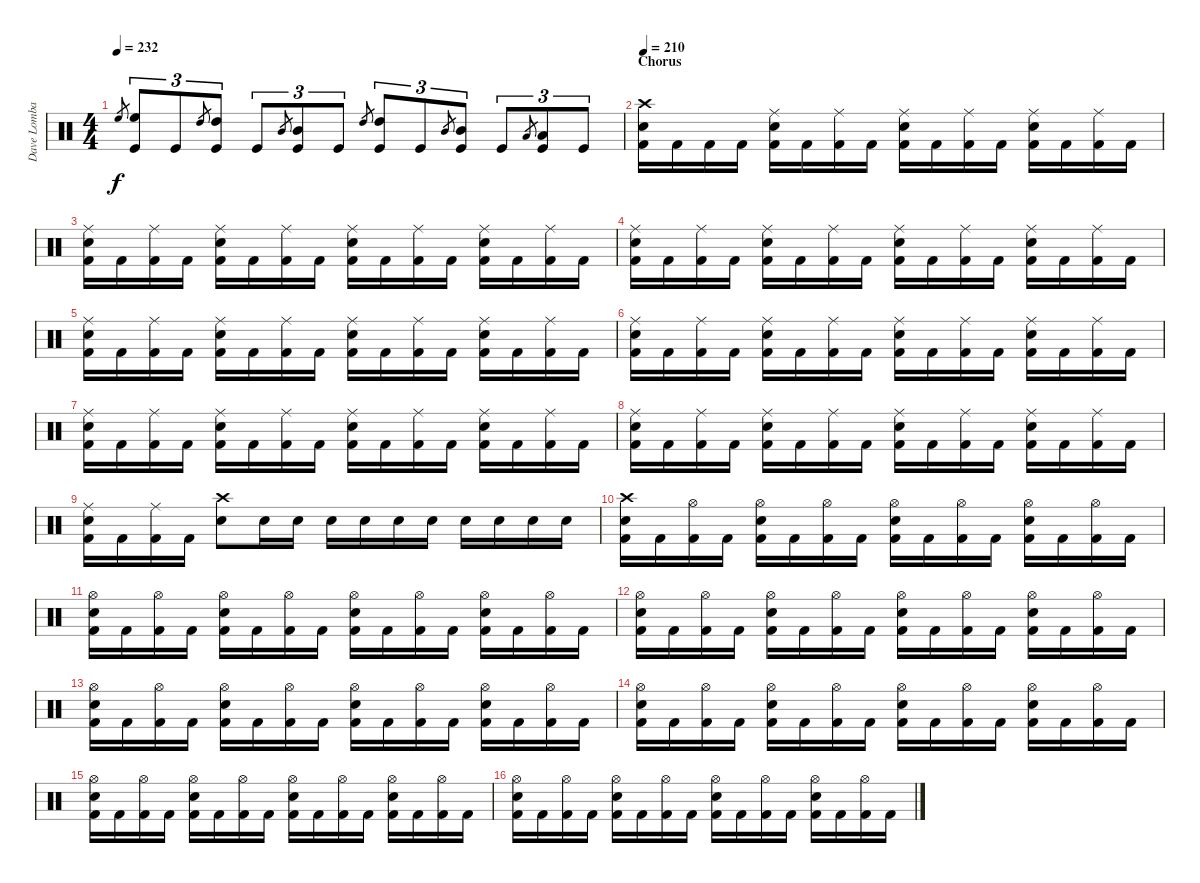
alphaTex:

\track ("Dave Lombardo" "Dave Lomba") {instrument percussion}
\staff {score}
\articulation defaults
\ts (4 4)
\tempo 232
\clef neutral
\ks c "High Floor Tom (hit)".8{gr dy f}
("High Floor Tom (hit)" "Kick (hit)").8{tu (3 2)} "Kick (hit)".8{tu (3 2)} "High Tom (hit)".8{gr} ("High Tom (hit)" "Kick (hit)").8{tu (3 2)} "Kick (hit)".8{tu (3 2)} "Mid Tom (hit)".8{gr} ("Mid Tom (hit)" "Kick (hit)").8{tu (3 2)} "Kick (hit)".8{tu (3 2)} "High Tom (hit)".8{gr} ("High Tom (hit)" "Kick (hit)").8{tu (3 2)} "Kick (hit)".8{tu (3 2)} "Mid Tom (hit)".8{gr} ("Mid Tom (hit)" "Kick (hit)").8{tu (3 2)} "Kick (hit)".8{tu (3 2)} "Low Tom (hit)".8{gr} ("Low Tom (hit)" "Kick (hit)").8{tu (3 2)} "Kick (hit)".8{tu (3 2)} |
\section ("" "Chorus")
\tempo 210
("Crash high (hit)" "Snare (hit) 2" "Kick (hit) 2").16 "Kick (hit) 2".16 "Kick (hit) 2".16 "Kick (hit) 2".16 ("Ride (middle)" "Snare (hit) 2" "Kick (hit) 2").16 "Kick (hit) 2".16 ("Ride (middle)" "Kick (hit) 2").16 "Kick (hit) 2".16 ("Ride (middle)" "Snare (hit) 2" "Kick (hit) 2").16 "Kick (hit) 2".16 ("Ride (middle)" "Kick (hit) 2").16 "Kick (hit) 2".16 ("Ride (middle)" "Snare (hit) 2" "Kick (hit) 2").16 "Kick (hit) 2".16 ("Ride (middle)" "Kick (hit) 2").16 "Kick (hit) 2".16 |
("Ride (middle)" "Snare (hit) 2" "Kick (hit) 2").16 "Kick (hit) 2".16 ("Ride (middle)" "Kick (hit) 2").16 "Kick (hit) 2".16 ("Ride (middle)" "Snare (hit) 2" "Kick (hit) 2").16 "Kick (hit) 2".16 ("Ride (middle)" "Kick (hit) 2").16 "Kick (hit) 2".16 ("Ride (middle)" "Snare (hit) 2" "Kick (hit) 2").16 "Kick (hit) 2".16 ("Ride (middle)" "Kick (hit) 2").16 "Kick (hit) 2".16 ("Ride (middle)" "Snare (hit) 2" "Kick (hit) 2").16 "Kick (hit) 2".16 ("Ride (middle)" "Kick (hit) 2").16 "Kick (hit) 2".16 |
("Ride (middle)" "Snare (hit) 2" "Kick (hit) 2").16 "Kick (hit) 2".16 ("Ride (middle)" "Kick (hit) 2").16 "Kick (hit) 2".16 ("Ride (middle)" "Snare (hit) 2" "Kick (hit) 2").16 "Kick (hit) 2".16 ("Ride (middle)" "Kick (hit) 2").16 "Kick (hit) 2".16 ("Ride (middle)" "Snare (hit) 2" "Kick (hit) 2").16 "Kick (hit) 2".16 ("Ride (middle)" "Kick (hit) 2").16 "Kick (hit) 2".16 ("Ride (middle)" "Snare (hit) 2" "Kick (hit) 2").16 "Kick (hit) 2".16 ("Ride (middle)" "Kick (hit) 2").16 "Kick (hit) 2".16 |
("Ride (middle)" "Snare (hit) 2" "Kick (hit) 2").16 "Kick (hit) 2".16 ("Ride (middle)" "Kick (hit) 2").16 "Kick (hit) 2".16 ("Ride (middle)" "Snare (hit) 2" "Kick (hit) 2").16 "Kick (hit) 2".16 ("Ride (middle)" "Kick (hit) 2").16 "Kick (hit) 2".16 ("Ride (middle)" "Snare (hit) 2" "Kick (hit) 2").16 "Kick (hit) 2".16 ("Ride (middle)" "Kick (hit) 2").16 "Kick (hit) 2".16 ("Ride (middle)" "Snare (hit) 2" "Kick (hit) 2").16 "Kick (hit) 2".16 ("Ride (middle)" "Kick (hit) 2").16 "Kick (hit) 2".16 |
("Ride (middle)" "Snare (hit) 2" "Kick (hit) 2").16 "Kick (hit) 2".16 ("Ride (middle)" "Kick (hit) 2").16 "Kick (hit) 2".16 ("Ride (middle)" "Snare (hit) 2" "Kick (hit) 2").16 "Kick (hit) 2".16 ("Ride (middle)" "Kick (hit) 2").16 "Kick (hit) 2".16 ("Ride (middle)" "Snare (hit) 2" "Kick (hit) 2").16 "Kick (hit) 2".16 ("Ride (middle)" "Kick (hit) 2").16 "Kick (hit) 2".16 ("Ride (middle)" "Snare (hit) 2" "Kick (hit) 2").16 "Kick (hit) 2".16 ("Ride (middle)" "Kick (hit) 2").16 "Kick (hit) 2".16 |
("Ride (middle)" "Snare (hit) 2" "Kick (hit) 2").16 "Kick (hit) 2".16 ("Ride (middle)" "Kick (hit) 2").16 "Kick (hit) 2".16 ("Ride (middle)" "Snare (hit) 2" "Kick (hit) 2").16 "Kick (hit) 2".16 ("Ride (middle)" "Kick (hit) 2").16 "Kick (hit) 2".16 ("Ride (middle)" "Snare (hit) 2" "Kick (hit) 2").16 "Kick (hit) 2".16 ("Ride (middle)" "Kick (hit) 2").16 "Kick (hit) 2".16 ("Ride (middle)" "Snare (hit) 2" "Kick (hit) 2").16 "Kick (hit) 2".16 ("Ride (middle)" "Kick (hit) 2").16 "Kick (hit) 2".16 |
("Ride (middle)" "Snare (hit) 2" "Kick (hit) 2").16 "Kick (hit) 2".16 ("Ride (middle)" "Kick (hit) 2").16 "Kick (hit) 2".16 ("Ride (middle)" "Snare (hit) 2" "Kick (hit) 2").16 "Kick (hit) 2".16 ("Ride (middle)" "Kick (hit) 2").16 "Kick (hit) 2".16 ("Ride (middle)" "Snare (hit) 2" "Kick (hit) 2").16 "Kick (hit) 2".16 ("Ride (middle)" "Kick (hit) 2").16 "Kick (hit) 2".16 ("Ride (middle)" "Snare (hit) 2" "Kick (hit) 2").16 "Kick (hit) 2".16 ("Ride (middle)" "Kick (hit) 2").16 "Kick (hit) 2".16 |
("Ride (middle)" "Snare (hit) 2" "Kick (hit) 2").16 "Kick (hit) 2".16 ("Ride (middle)" "Kick (hit) 2").16 "Kick (hit) 2".16 ("Crash high (hit)" "Snare (hit) 2").8 "Snare (hit) 2".16 "Snare (hit) 2".16 "Snare (hit) 2".16 "Snare (hit) 2".16 "Snare (hit) 2".16 "Snare (hit) 2".16 "Snare (hit) 2".16 "Snare (hit) 2".16 "Snare (hit) 2".16 "Snare (hit) 2".16 |
("Crash high (hit)" "Snare (hit) 2" "Kick (hit) 2").16 "Kick (hit) 2".16 ("Hi-Hat (open)" "Kick (hit) 2").16 "Kick (hit) 2".16 ("Hi-Hat (open)" "Snare (hit) 2" "Kick (hit) 2").16 "Kick (hit) 2".16 ("Hi-Hat (open)" "Kick (hit) 2").16 "Kick (hit) 2".16 ("Hi-Hat (open)" "Snare (hit) 2" "Kick (hit) 2").16 "Kick (hit) 2".16 ("Hi-Hat (open)" "Kick (hit) 2").16 "Kick (hit) 2".16 ("Hi-Hat (open)" "Snare (hit) 2" "Kick (hit) 2").16 "Kick (hit) 2".16 ("Hi-Hat (open)" "Kick (hit) 2").16 "Kick (hit) 2".16 |
("Hi-Hat (open)" "Snare (hit) 2" "Kick (hit) 2").16 "Kick (hit) 2".16 ("Hi-Hat (open)" "Kick (hit) 2").16 "Kick (hit) 2".16 ("Hi-Hat (open)" "Snare (hit) 2" "Kick (hit) 2").16 "Kick (hit) 2".16 ("Hi-Hat (open)" "Kick (hit) 2").16 "Kick (hit) 2".16 ("Hi-Hat (open)" "Snare (hit) 2" "Kick (hit) 2").16 "Kick (hit) 2".16 ("Hi-Hat (open)" "Kick (hit) 2").16 "Kick (hit) 2".16 ("Hi-Hat (open)" "Snare (hit) 2" "Kick (hit) 2").16 "Kick (hit) 2".16 ("Hi-Hat (open)" "Kick (hit) 2").16 "Kick (hit) 2".16 |
("Hi-Hat (open)" "Snare (hit) 2" "Kick (hit) 2").16 "Kick (hit) 2".16 ("Hi-Hat (open)" "Kick (hit) 2").16 "Kick (hit) 2".16 ("Hi-Hat (open)" "Snare (hit) 2" "Kick (hit) 2").16 "Kick (hit) 2".16 ("Hi-Hat (open)" "Kick (hit) 2").16 "Kick (hit) 2".16 ("Hi-Hat (open)" "Snare (hit) 2" "Kick (hit) 2").16 "Kick (hit) 2".16 ("Hi-Hat (open)" "Kick (hit) 2").16 "Kick (hit) 2".16 ("Hi-Hat (open)" "Snare (hit) 2" "Kick (hit) 2").16 "Kick (hit) 2".16 ("Hi-Hat (open)" "Kick (hit) 2").16 "Kick (hit) 2".16 |
("Hi-Hat (open)" "Snare (hit) 2" "Kick (hit) 2").16 "Kick (hit) 2".16 ("Hi-Hat (open)" "Kick (hit) 2").16 "Kick (hit) 2".16 ("Hi-Hat (open)" "Snare (hit) 2" "Kick (hit) 2").16 "Kick (hit) 2".16 ("Hi-Hat (open)" "Kick (hit) 2").16 "Kick (hit) 2".16 ("Hi-Hat (open)" "Snare (hit) 2" "Kick (hit) 2").16 "Kick (hit) 2".16 ("Hi-Hat (open)" "Kick (hit) 2").16 "Kick (hit) 2".16 ("Hi-Hat (open)" "Snare (hit) 2" "Kick (hit) 2").16 "Kick (hit) 2".16 ("Hi-Hat (open)" "Kick (hit) 2").16 "Kick (hit) 2".16 |
("Hi-Hat (open)" "Snare (hit) 2" "Kick (hit) 2").16 "Kick (hit) 2".16 ("Hi-Hat (open)" "Kick (hit) 2").16 "Kick (hit) 2".16 ("Hi-Hat (open)" "Snare (hit) 2" "Kick (hit) 2").16 "Kick (hit) 2".16 ("Hi-Hat (open)" "Kick (hit) 2").16 "Kick (hit) 2".16 ("Hi-Hat (open)" "Snare (hit) 2" "Kick (hit) 2").16 "Kick (hit) 2".16 ("Hi-Hat (open)" "Kick (hit) 2").16 "Kick (hit) 2".16 ("Hi-Hat (open)" "Snare (hit) 2" "Kick (hit) 2").16 "Kick (hit) 2".16 ("Hi-Hat (open)" "Kick (hit) 2").16 "Kick (hit) 2".16 |
("Hi-Hat (open)" "Snare (hit) 2" "Kick (hit) 2").16 "Kick (hit) 2".16 ("Hi-Hat (open)" "Kick (hit) 2").16 "Kick (hit) 2".16 ("Hi-Hat (open)" "Snare (hit) 2" "Kick (hit) 2").16 "Kick (hit) 2".16 ("Hi-Hat (open)" "Kick (hit) 2").16 "Kick (hit) 2".16 ("Hi-Hat (open)" "Snare (hit) 2" "Kick (hit) 2").16 "Kick (hit) 2".16 ("Hi-Hat (open)" "Kick (hit) 2").16 "Kick (hit) 2".16 ("Hi-Hat (open)" "Snare (hit) 2" "Kick (hit) 2").16 "Kick (hit) 2".16 ("Hi-Hat (open)" "Kick (hit) 2").16 "Kick (hit) 2".16 |
("Hi-Hat (open)" "Snare (hit) 2" "Kick (hit) 2").16 "Kick (hit) 2".16 ("Hi-Hat (open)" "Kick (hit) 2").16 "Kick (hit) 2".16 ("Hi-Hat (open)" "Snare (hit) 2" "Kick (hit) 2").16 "Kick (hit) 2".16 ("Hi-Hat (open)" "Kick (hit) 2").16 "Kick (hit) 2".16 ("Hi-Hat (open)" "Snare (hit) 2" "Kick (hit) 2").16 "Kick (hit) 2".16 ("Hi-Hat (open)" "Kick (hit) 2").16 "Kick (hit) 2".16 ("Hi-Hat (open)" "Snare (hit) 2" "Kick (hit) 2").16 "Kick (hit) 2".16 ("Hi-Hat (open)" "Kick (hit) 2").16 "Kick (hit) 2".16
